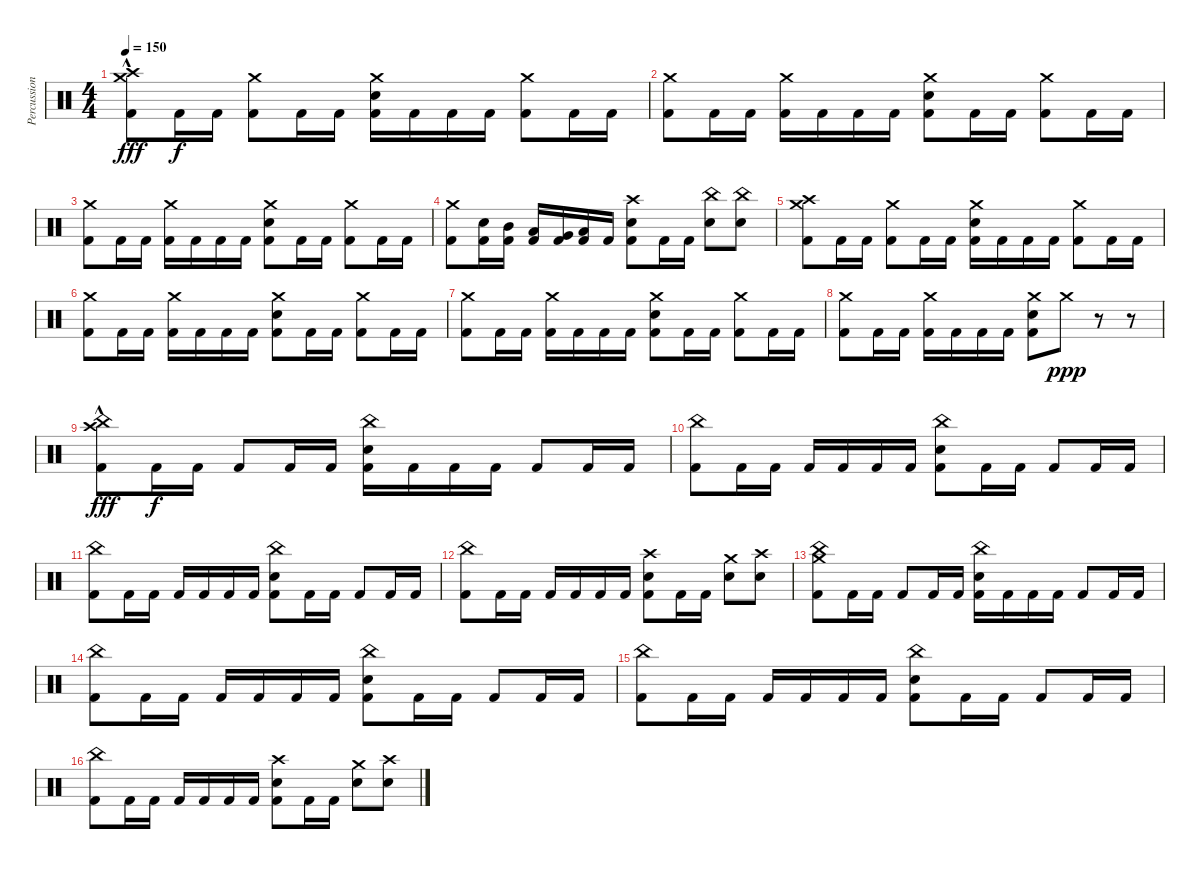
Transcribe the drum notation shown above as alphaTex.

\track ("Percussion" "Percussion") {instrument percussion}
\staff {score}
\articulation defaults
\ts (4 4)
\tempo 150
\clef neutral
\ks c
("Crash medium (hit)"{hac} "Crash high (hit)"{hac} "Kick (hit) 2"{hac}).8{dy fff} "Kick (hit) 2".16{dy f} "Kick (hit) 2".16 ("Crash medium (hit)" "Kick (hit) 2").8 "Kick (hit) 2".16 "Kick (hit) 2".16 ("Crash medium (hit)" "Electric Snare (hit)" "Kick (hit) 2").16 "Kick (hit) 2".16 "Kick (hit) 2".16 "Kick (hit) 2".16 ("Crash medium (hit)" "Kick (hit) 2").8 "Kick (hit) 2".16 "Kick (hit) 2".16 |
("Crash medium (hit)" "Kick (hit) 2").8 "Kick (hit) 2".16 "Kick (hit) 2".16 ("Crash medium (hit)" "Kick (hit) 2").16 "Kick (hit) 2".16 "Kick (hit) 2".16 "Kick (hit) 2".16 ("Crash medium (hit)" "Electric Snare (hit)" "Kick (hit) 2").8 "Kick (hit) 2".16 "Kick (hit) 2".16 ("Crash medium (hit)" "Kick (hit) 2").8 "Kick (hit) 2".16 "Kick (hit) 2".16 |
("Crash medium (hit)" "Kick (hit) 2").8 "Kick (hit) 2".16 "Kick (hit) 2".16 ("Crash medium (hit)" "Kick (hit) 2").16 "Kick (hit) 2".16 "Kick (hit) 2".16 "Kick (hit) 2".16 ("Crash medium (hit)" "Electric Snare (hit)" "Kick (hit) 2").8 "Kick (hit) 2".16 "Kick (hit) 2".16 ("Crash medium (hit)" "Kick (hit) 2").8 "Kick (hit) 2".16 "Kick (hit) 2".16 |
("Crash medium (hit)" "Kick (hit) 2").8 ("Electric Snare (hit)" "Kick (hit) 2").16 ("Mid Tom (hit)" "Kick (hit) 2").16 ("Low Tom (hit)" "Kick (hit) 2").16 ("Very Low Tom (hit)" "Kick (hit) 2").16 ("Low Floor Tom (hit)" "Kick (hit) 2").16 "Kick (hit) 2".16 ("Crash high (hit)" "Electric Snare (hit)" "Kick (hit) 2").8 "Kick (hit) 2".16 "Kick (hit) 2".16 ("China (hit)" "Electric Snare (hit)").8 ("China (hit)" "Electric Snare (hit)").8 |
("Crash medium (hit)" "Crash high (hit)" "Kick (hit) 2").8 "Kick (hit) 2".16 "Kick (hit) 2".16 ("Crash medium (hit)" "Kick (hit) 2").8 "Kick (hit) 2".16 "Kick (hit) 2".16 ("Crash medium (hit)" "Electric Snare (hit)" "Kick (hit) 2").16 "Kick (hit) 2".16 "Kick (hit) 2".16 "Kick (hit) 2".16 ("Crash medium (hit)" "Kick (hit) 2").8 "Kick (hit) 2".16 "Kick (hit) 2".16 |
("Crash medium (hit)" "Kick (hit) 2").8 "Kick (hit) 2".16 "Kick (hit) 2".16 ("Crash medium (hit)" "Kick (hit) 2").16 "Kick (hit) 2".16 "Kick (hit) 2".16 "Kick (hit) 2".16 ("Crash medium (hit)" "Electric Snare (hit)" "Kick (hit) 2").8 "Kick (hit) 2".16 "Kick (hit) 2".16 ("Crash medium (hit)" "Kick (hit) 2").8 "Kick (hit) 2".16 "Kick (hit) 2".16 |
("Crash medium (hit)" "Kick (hit) 2").8 "Kick (hit) 2".16 "Kick (hit) 2".16 ("Crash medium (hit)" "Kick (hit) 2").16 "Kick (hit) 2".16 "Kick (hit) 2".16 "Kick (hit) 2".16 ("Crash medium (hit)" "Electric Snare (hit)" "Kick (hit) 2").8 "Kick (hit) 2".16 "Kick (hit) 2".16 ("Crash medium (hit)" "Kick (hit) 2").8 "Kick (hit) 2".16 "Kick (hit) 2".16 |
("Crash medium (hit)" "Kick (hit) 2").8 "Kick (hit) 2".16 "Kick (hit) 2".16 ("Crash medium (hit)" "Kick (hit) 2").16 "Kick (hit) 2".16 "Kick (hit) 2".16 "Kick (hit) 2".16 ("Crash medium (hit)" "Electric Snare (hit)" "Kick (hit) 2").8 "Crash medium (hit)".8{dy ppp} r.8 r.8 |
("China (hit)"{hac} "Crash high (hit)"{hac} "Kick (hit) 2"{hac}).8{dy fff} "Kick (hit) 2".16{dy f} "Kick (hit) 2".16 "Kick (hit) 2".8 "Kick (hit) 2".16 "Kick (hit) 2".16 ("China (hit)" "Electric Snare (hit)" "Kick (hit) 2").16 "Kick (hit) 2".16 "Kick (hit) 2".16 "Kick (hit) 2".16 "Kick (hit) 2".8 "Kick (hit) 2".16 "Kick (hit) 2".16 |
("China (hit)" "Kick (hit) 2").8 "Kick (hit) 2".16 "Kick (hit) 2".16 "Kick (hit) 2".16 "Kick (hit) 2".16 "Kick (hit) 2".16 "Kick (hit) 2".16 ("China (hit)" "Electric Snare (hit)" "Kick (hit) 2").8 "Kick (hit) 2".16 "Kick (hit) 2".16 "Kick (hit) 2".8 "Kick (hit) 2".16 "Kick (hit) 2".16 |
("China (hit)" "Kick (hit) 2").8 "Kick (hit) 2".16 "Kick (hit) 2".16 "Kick (hit) 2".16 "Kick (hit) 2".16 "Kick (hit) 2".16 "Kick (hit) 2".16 ("China (hit)" "Electric Snare (hit)" "Kick (hit) 2").8 "Kick (hit) 2".16 "Kick (hit) 2".16 "Kick (hit) 2".8 "Kick (hit) 2".16 "Kick (hit) 2".16 |
("China (hit)" "Kick (hit) 2").8 "Kick (hit) 2".16 "Kick (hit) 2".16 "Kick (hit) 2".16 "Kick (hit) 2".16 "Kick (hit) 2".16 "Kick (hit) 2".16 ("Crash high (hit)" "Electric Snare (hit)" "Kick (hit) 2").8 "Kick (hit) 2".16 "Kick (hit) 2".16 ("Crash medium (hit)" "Electric Snare (hit)").8 ("Crash high (hit)" "Electric Snare (hit)").8 |
("China (hit)" "Crash medium (hit)" "Kick (hit) 2").8 "Kick (hit) 2".16 "Kick (hit) 2".16 "Kick (hit) 2".8 "Kick (hit) 2".16 "Kick (hit) 2".16 ("China (hit)" "Electric Snare (hit)" "Kick (hit) 2").16 "Kick (hit) 2".16 "Kick (hit) 2".16 "Kick (hit) 2".16 "Kick (hit) 2".8 "Kick (hit) 2".16 "Kick (hit) 2".16 |
("China (hit)" "Kick (hit) 2").8 "Kick (hit) 2".16 "Kick (hit) 2".16 "Kick (hit) 2".16 "Kick (hit) 2".16 "Kick (hit) 2".16 "Kick (hit) 2".16 ("China (hit)" "Electric Snare (hit)" "Kick (hit) 2").8 "Kick (hit) 2".16 "Kick (hit) 2".16 "Kick (hit) 2".8 "Kick (hit) 2".16 "Kick (hit) 2".16 |
("China (hit)" "Kick (hit) 2").8 "Kick (hit) 2".16 "Kick (hit) 2".16 "Kick (hit) 2".16 "Kick (hit) 2".16 "Kick (hit) 2".16 "Kick (hit) 2".16 ("China (hit)" "Electric Snare (hit)" "Kick (hit) 2").8 "Kick (hit) 2".16 "Kick (hit) 2".16 "Kick (hit) 2".8 "Kick (hit) 2".16 "Kick (hit) 2".16 |
("China (hit)" "Kick (hit) 2").8 "Kick (hit) 2".16 "Kick (hit) 2".16 "Kick (hit) 2".16 "Kick (hit) 2".16 "Kick (hit) 2".16 "Kick (hit) 2".16 ("Crash high (hit)" "Electric Snare (hit)" "Kick (hit) 2").8 "Kick (hit) 2".16 "Kick (hit) 2".16 ("Crash medium (hit)" "Electric Snare (hit)").8 ("Crash high (hit)" "Electric Snare (hit)").8
